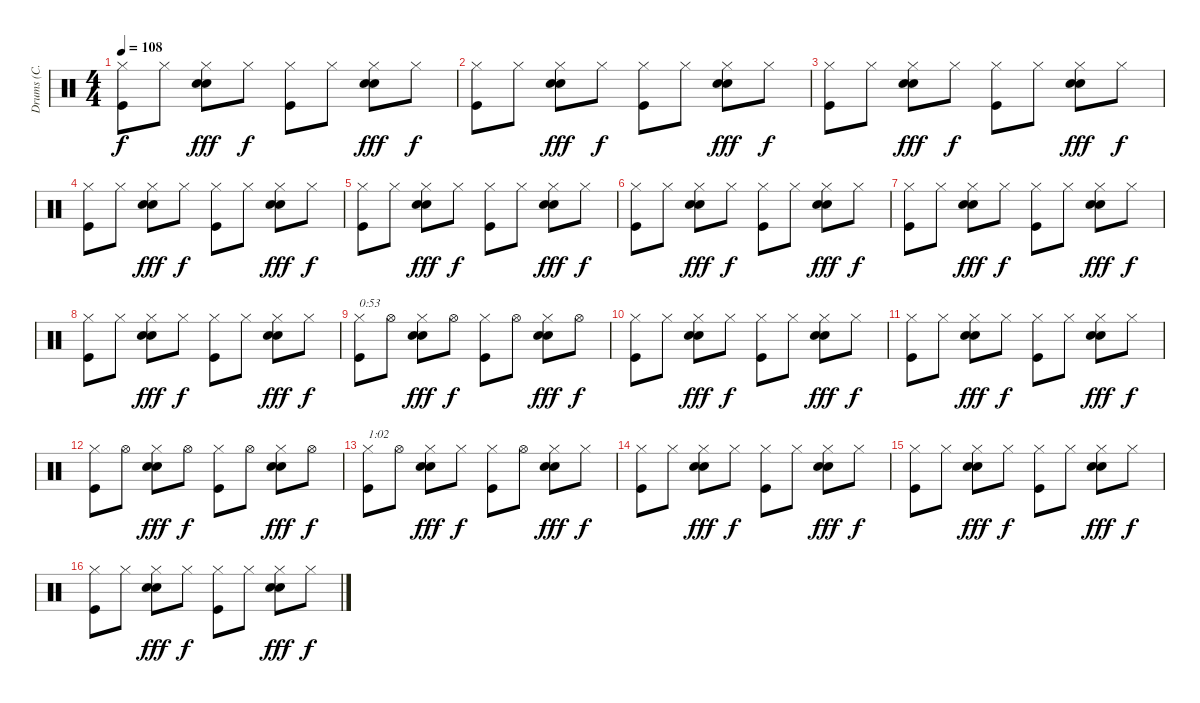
\track ("Drums (C. Watts)" "Drums (C. ") {instrument percussion}
\staff {score}
\articulation defaults
\ts (4 4)
\tempo 108
\clef neutral
\ks c
("Hi-Hat (closed)" "Kick (hit)").8{dy f} "Hi-Hat (closed)".8 ("Hi-Hat (closed)" "Snare (hit) 2" "Electric Snare (hit)").8{dy fff} "Hi-Hat (closed)".8{dy f} ("Hi-Hat (closed)" "Kick (hit)").8 "Hi-Hat (closed)".8 ("Hi-Hat (closed)" "Snare (hit) 2" "Electric Snare (hit)").8{dy fff} "Hi-Hat (closed)".8{dy f} |
("Hi-Hat (closed)" "Kick (hit)").8 "Hi-Hat (closed)".8 ("Hi-Hat (closed)" "Snare (hit) 2" "Electric Snare (hit)").8{dy fff} "Hi-Hat (closed)".8{dy f} ("Hi-Hat (closed)" "Kick (hit)").8 "Hi-Hat (closed)".8 ("Hi-Hat (closed)" "Snare (hit) 2" "Electric Snare (hit)").8{dy fff} "Hi-Hat (closed)".8{dy f} |
("Hi-Hat (closed)" "Kick (hit)").8 "Hi-Hat (closed)".8 ("Hi-Hat (closed)" "Snare (hit) 2" "Electric Snare (hit)").8{dy fff} "Hi-Hat (closed)".8{dy f} ("Hi-Hat (closed)" "Kick (hit)").8 "Hi-Hat (closed)".8 ("Hi-Hat (closed)" "Snare (hit) 2" "Electric Snare (hit)").8{dy fff} "Hi-Hat (closed)".8{dy f} |
("Hi-Hat (closed)" "Kick (hit)").8 "Hi-Hat (closed)".8 ("Hi-Hat (closed)" "Snare (hit) 2" "Electric Snare (hit)").8{dy fff} "Hi-Hat (closed)".8{dy f} ("Hi-Hat (closed)" "Kick (hit)").8 "Hi-Hat (closed)".8 ("Hi-Hat (closed)" "Snare (hit) 2" "Electric Snare (hit)").8{dy fff} "Hi-Hat (closed)".8{dy f} |
("Hi-Hat (closed)" "Kick (hit)").8 "Hi-Hat (closed)".8 ("Hi-Hat (closed)" "Snare (hit) 2" "Electric Snare (hit)").8{dy fff} "Hi-Hat (closed)".8{dy f} ("Hi-Hat (closed)" "Kick (hit)").8 "Hi-Hat (closed)".8 ("Hi-Hat (closed)" "Snare (hit) 2" "Electric Snare (hit)").8{dy fff} "Hi-Hat (closed)".8{dy f} |
("Hi-Hat (closed)" "Kick (hit)").8 "Hi-Hat (closed)".8 ("Hi-Hat (closed)" "Snare (hit) 2" "Electric Snare (hit)").8{dy fff} "Hi-Hat (closed)".8{dy f} ("Hi-Hat (closed)" "Kick (hit)").8 "Hi-Hat (closed)".8 ("Hi-Hat (closed)" "Snare (hit) 2" "Electric Snare (hit)").8{dy fff} "Hi-Hat (closed)".8{dy f} |
("Hi-Hat (closed)" "Kick (hit)").8 "Hi-Hat (closed)".8 ("Hi-Hat (closed)" "Snare (hit) 2" "Electric Snare (hit)").8{dy fff} "Hi-Hat (closed)".8{dy f} ("Hi-Hat (closed)" "Kick (hit)").8 "Hi-Hat (closed)".8 ("Hi-Hat (closed)" "Snare (hit) 2" "Electric Snare (hit)").8{dy fff} "Hi-Hat (closed)".8{dy f} |
("Hi-Hat (closed)" "Kick (hit)").8 "Hi-Hat (closed)".8 ("Hi-Hat (closed)" "Snare (hit) 2" "Electric Snare (hit)").8{dy fff} "Hi-Hat (closed)".8{dy f} ("Hi-Hat (closed)" "Kick (hit)").8 "Hi-Hat (closed)".8 ("Hi-Hat (closed)" "Snare (hit) 2" "Electric Snare (hit)").8{dy fff} "Hi-Hat (closed)".8{dy f} |
("Hi-Hat (closed)" "Kick (hit)").8{txt "0:53"} "Hi-Hat (open)".8 ("Hi-Hat (closed)" "Snare (hit) 2" "Electric Snare (hit)").8{dy fff} "Hi-Hat (open)".8{dy f} ("Hi-Hat (closed)" "Kick (hit)").8 "Hi-Hat (open)".8 ("Hi-Hat (closed)" "Snare (hit) 2" "Electric Snare (hit)").8{dy fff} "Hi-Hat (open)".8{dy f} |
("Hi-Hat (closed)" "Kick (hit)").8 "Hi-Hat (closed)".8 ("Hi-Hat (closed)" "Snare (hit) 2" "Electric Snare (hit)").8{dy fff} "Hi-Hat (closed)".8{dy f} ("Hi-Hat (closed)" "Kick (hit)").8 "Hi-Hat (closed)".8 ("Hi-Hat (closed)" "Snare (hit) 2" "Electric Snare (hit)").8{dy fff} "Hi-Hat (closed)".8{dy f} |
("Hi-Hat (closed)" "Kick (hit)").8 "Hi-Hat (closed)".8 ("Hi-Hat (closed)" "Snare (hit) 2" "Electric Snare (hit)").8{dy fff} "Hi-Hat (closed)".8{dy f} ("Hi-Hat (closed)" "Kick (hit)").8 "Hi-Hat (closed)".8 ("Hi-Hat (closed)" "Snare (hit) 2" "Electric Snare (hit)").8{dy fff} "Hi-Hat (closed)".8{dy f} |
("Hi-Hat (closed)" "Kick (hit)").8 "Hi-Hat (open)".8 ("Hi-Hat (closed)" "Snare (hit) 2" "Electric Snare (hit)").8{dy fff} "Hi-Hat (open)".8{dy f} ("Hi-Hat (closed)" "Kick (hit)").8 "Hi-Hat (open)".8 ("Hi-Hat (closed)" "Snare (hit) 2" "Electric Snare (hit)").8{dy fff} "Hi-Hat (open)".8{dy f} |
("Hi-Hat (closed)" "Kick (hit)").8{txt "1:02"} "Hi-Hat (open)".8 ("Hi-Hat (closed)" "Snare (hit) 2" "Electric Snare (hit)").8{dy fff} "Hi-Hat (closed)".8{dy f} ("Hi-Hat (closed)" "Kick (hit)").8 "Hi-Hat (open)".8 ("Hi-Hat (closed)" "Snare (hit) 2" "Electric Snare (hit)").8{dy fff} "Hi-Hat (closed)".8{dy f} |
("Hi-Hat (closed)" "Kick (hit)").8 "Hi-Hat (closed)".8 ("Hi-Hat (closed)" "Snare (hit) 2" "Electric Snare (hit)").8{dy fff} "Hi-Hat (closed)".8{dy f} ("Hi-Hat (closed)" "Kick (hit)").8 "Hi-Hat (closed)".8 ("Hi-Hat (closed)" "Snare (hit) 2" "Electric Snare (hit)").8{dy fff} "Hi-Hat (closed)".8{dy f} |
("Hi-Hat (closed)" "Kick (hit)").8 "Hi-Hat (closed)".8 ("Hi-Hat (closed)" "Snare (hit) 2" "Electric Snare (hit)").8{dy fff} "Hi-Hat (closed)".8{dy f} ("Hi-Hat (closed)" "Kick (hit)").8 "Hi-Hat (closed)".8 ("Hi-Hat (closed)" "Snare (hit) 2" "Electric Snare (hit)").8{dy fff} "Hi-Hat (closed)".8{dy f} |
("Hi-Hat (closed)" "Kick (hit)").8 "Hi-Hat (closed)".8 ("Hi-Hat (closed)" "Snare (hit) 2" "Electric Snare (hit)").8{dy fff} "Hi-Hat (closed)".8{dy f} ("Hi-Hat (closed)" "Kick (hit)").8 "Hi-Hat (closed)".8 ("Hi-Hat (closed)" "Snare (hit) 2" "Electric Snare (hit)").8{dy fff} "Hi-Hat (closed)".8{dy f}
